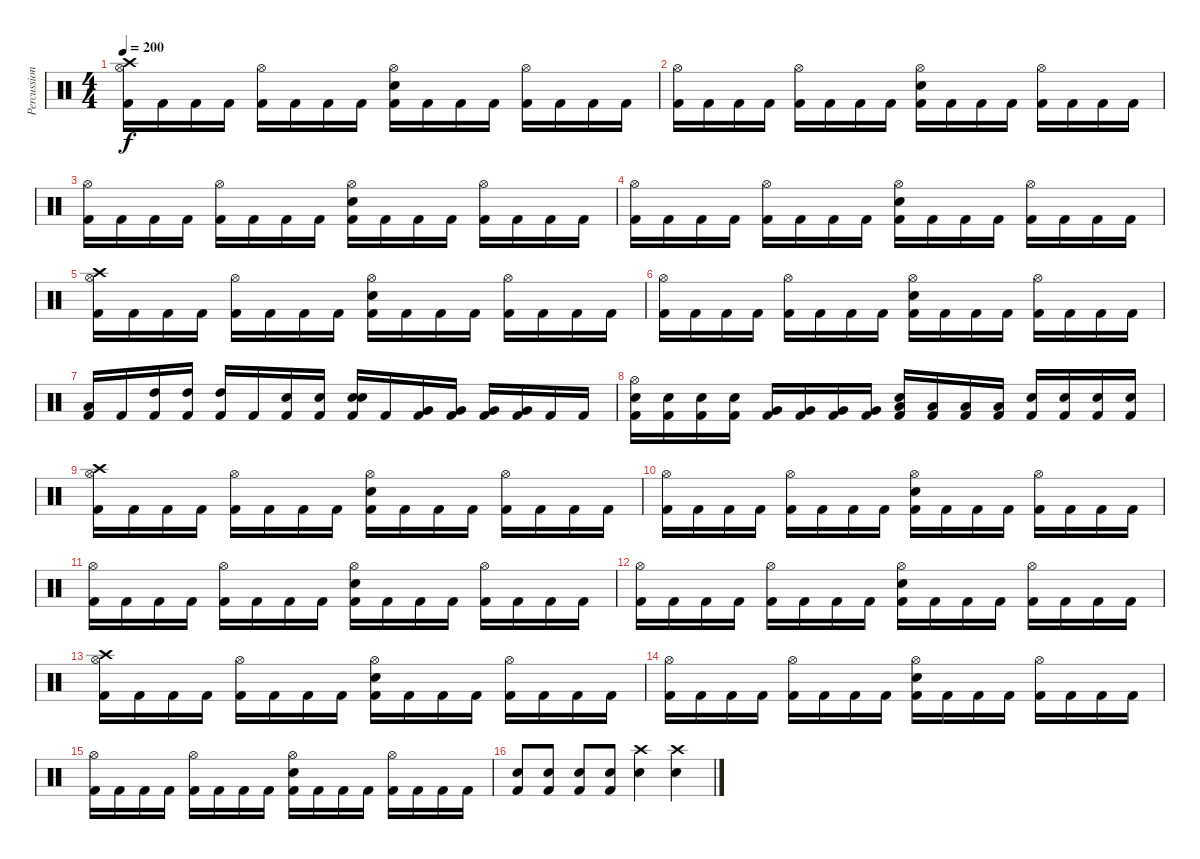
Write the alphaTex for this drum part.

\track ("Percussions" "Percussion") {instrument percussion}
\staff {score}
\articulation defaults
\ts (4 4)
\tempo 200
\clef neutral
\ks c
("Crash high (hit)" "Hi-Hat (open)" "Kick (hit) 2").16{dy f} "Kick (hit) 2".16 "Kick (hit) 2".16 "Kick (hit) 2".16 ("Hi-Hat (open)" "Kick (hit) 2").16 "Kick (hit) 2".16 "Kick (hit) 2".16 "Kick (hit) 2".16 ("Hi-Hat (open)" "Electric Snare (hit)" "Kick (hit) 2").16 "Kick (hit) 2".16 "Kick (hit) 2".16 "Kick (hit) 2".16 ("Hi-Hat (open)" "Kick (hit) 2").16 "Kick (hit) 2".16 "Kick (hit) 2".16 "Kick (hit) 2".16 |
("Hi-Hat (open)" "Kick (hit) 2").16 "Kick (hit) 2".16 "Kick (hit) 2".16 "Kick (hit) 2".16 ("Hi-Hat (open)" "Kick (hit) 2").16 "Kick (hit) 2".16 "Kick (hit) 2".16 "Kick (hit) 2".16 ("Hi-Hat (open)" "Electric Snare (hit)" "Kick (hit) 2").16 "Kick (hit) 2".16 "Kick (hit) 2".16 "Kick (hit) 2".16 ("Hi-Hat (open)" "Kick (hit) 2").16 "Kick (hit) 2".16 "Kick (hit) 2".16 "Kick (hit) 2".16 |
("Hi-Hat (open)" "Kick (hit) 2").16 "Kick (hit) 2".16 "Kick (hit) 2".16 "Kick (hit) 2".16 ("Hi-Hat (open)" "Kick (hit) 2").16 "Kick (hit) 2".16 "Kick (hit) 2".16 "Kick (hit) 2".16 ("Hi-Hat (open)" "Electric Snare (hit)" "Kick (hit) 2").16 "Kick (hit) 2".16 "Kick (hit) 2".16 "Kick (hit) 2".16 ("Hi-Hat (open)" "Kick (hit) 2").16 "Kick (hit) 2".16 "Kick (hit) 2".16 "Kick (hit) 2".16 |
("Hi-Hat (open)" "Kick (hit) 2").16 "Kick (hit) 2".16 "Kick (hit) 2".16 "Kick (hit) 2".16 ("Hi-Hat (open)" "Kick (hit) 2").16 "Kick (hit) 2".16 "Kick (hit) 2".16 "Kick (hit) 2".16 ("Hi-Hat (open)" "Electric Snare (hit)" "Kick (hit) 2").16 "Kick (hit) 2".16 "Kick (hit) 2".16 "Kick (hit) 2".16 ("Hi-Hat (open)" "Kick (hit) 2").16 "Kick (hit) 2".16 "Kick (hit) 2".16 "Kick (hit) 2".16 |
("Crash high (hit)" "Hi-Hat (open)" "Kick (hit) 2").16 "Kick (hit) 2".16 "Kick (hit) 2".16 "Kick (hit) 2".16 ("Hi-Hat (open)" "Kick (hit) 2").16 "Kick (hit) 2".16 "Kick (hit) 2".16 "Kick (hit) 2".16 ("Hi-Hat (open)" "Electric Snare (hit)" "Kick (hit) 2").16 "Kick (hit) 2".16 "Kick (hit) 2".16 "Kick (hit) 2".16 ("Hi-Hat (open)" "Kick (hit) 2").16 "Kick (hit) 2".16 "Kick (hit) 2".16 "Kick (hit) 2".16 |
("Hi-Hat (open)" "Kick (hit) 2").16 "Kick (hit) 2".16 "Kick (hit) 2".16 "Kick (hit) 2".16 ("Hi-Hat (open)" "Kick (hit) 2").16 "Kick (hit) 2".16 "Kick (hit) 2".16 "Kick (hit) 2".16 ("Hi-Hat (open)" "Electric Snare (hit)" "Kick (hit) 2").16 "Kick (hit) 2".16 "Kick (hit) 2".16 "Kick (hit) 2".16 ("Hi-Hat (open)" "Kick (hit) 2").16 "Kick (hit) 2".16 "Kick (hit) 2".16 "Kick (hit) 2".16 |
("Low Tom (hit)" "Kick (hit) 2").16 "Kick (hit) 2".16 ("High Tom (hit)" "Kick (hit) 2").16 ("High Tom (hit)" "Kick (hit) 2").16 ("High Tom (hit)" "Kick (hit) 2").16 "Kick (hit) 2".16 ("Electric Snare (hit)" "Kick (hit) 2").16 ("Electric Snare (hit)" "Kick (hit) 2").16 ("Electric Snare (hit)" "Electric Snare (hit)" "Kick (hit) 2").16 "Kick (hit) 2".16 ("Very Low Tom (hit)" "Kick (hit) 2").16 ("Very Low Tom (hit)" "Kick (hit) 2").16 ("Very Low Tom (hit)" "Kick (hit) 2").16 ("Very Low Tom (hit)" "Kick (hit) 2").16 "Kick (hit) 2".16 "Kick (hit) 2".16 |
("Electric Snare (hit)" "Hi-Hat (open)" "Kick (hit) 2").16 ("Electric Snare (hit)" "Kick (hit) 2").16 ("Electric Snare (hit)" "Kick (hit) 2").16 ("Electric Snare (hit)" "Kick (hit) 2").16 ("Very Low Tom (hit)" "Kick (hit) 2").16 ("Very Low Tom (hit)" "Kick (hit) 2").16 ("Very Low Tom (hit)" "Kick (hit) 2").16 ("Very Low Tom (hit)" "Kick (hit) 2").16 ("Low Floor Tom (hit)" "Electric Snare (hit)" "Kick (hit) 2").16 ("Low Floor Tom (hit)" "Kick (hit) 2").16 ("Low Floor Tom (hit)" "Kick (hit) 2").16 ("Low Floor Tom (hit)" "Kick (hit) 2").16 ("Electric Snare (hit)" "Kick (hit) 2").16 ("Electric Snare (hit)" "Kick (hit) 2").16 ("Electric Snare (hit)" "Kick (hit) 2").16 ("Electric Snare (hit)" "Kick (hit) 2").16 |
("Crash high (hit)" "Hi-Hat (open)" "Kick (hit) 2").16 "Kick (hit) 2".16 "Kick (hit) 2".16 "Kick (hit) 2".16 ("Hi-Hat (open)" "Kick (hit) 2").16 "Kick (hit) 2".16 "Kick (hit) 2".16 "Kick (hit) 2".16 ("Hi-Hat (open)" "Electric Snare (hit)" "Kick (hit) 2").16 "Kick (hit) 2".16 "Kick (hit) 2".16 "Kick (hit) 2".16 ("Hi-Hat (open)" "Kick (hit) 2").16 "Kick (hit) 2".16 "Kick (hit) 2".16 "Kick (hit) 2".16 |
("Hi-Hat (open)" "Kick (hit) 2").16 "Kick (hit) 2".16 "Kick (hit) 2".16 "Kick (hit) 2".16 ("Hi-Hat (open)" "Kick (hit) 2").16 "Kick (hit) 2".16 "Kick (hit) 2".16 "Kick (hit) 2".16 ("Hi-Hat (open)" "Electric Snare (hit)" "Kick (hit) 2").16 "Kick (hit) 2".16 "Kick (hit) 2".16 "Kick (hit) 2".16 ("Hi-Hat (open)" "Kick (hit) 2").16 "Kick (hit) 2".16 "Kick (hit) 2".16 "Kick (hit) 2".16 |
("Hi-Hat (open)" "Kick (hit) 2").16 "Kick (hit) 2".16 "Kick (hit) 2".16 "Kick (hit) 2".16 ("Hi-Hat (open)" "Kick (hit) 2").16 "Kick (hit) 2".16 "Kick (hit) 2".16 "Kick (hit) 2".16 ("Hi-Hat (open)" "Electric Snare (hit)" "Kick (hit) 2").16 "Kick (hit) 2".16 "Kick (hit) 2".16 "Kick (hit) 2".16 ("Hi-Hat (open)" "Kick (hit) 2").16 "Kick (hit) 2".16 "Kick (hit) 2".16 "Kick (hit) 2".16 |
("Hi-Hat (open)" "Kick (hit) 2").16 "Kick (hit) 2".16 "Kick (hit) 2".16 "Kick (hit) 2".16 ("Hi-Hat (open)" "Kick (hit) 2").16 "Kick (hit) 2".16 "Kick (hit) 2".16 "Kick (hit) 2".16 ("Hi-Hat (open)" "Electric Snare (hit)" "Kick (hit) 2").16 "Kick (hit) 2".16 "Kick (hit) 2".16 "Kick (hit) 2".16 ("Hi-Hat (open)" "Kick (hit) 2").16 "Kick (hit) 2".16 "Kick (hit) 2".16 "Kick (hit) 2".16 |
("Crash high (hit)" "Hi-Hat (open)" "Kick (hit) 2").16 "Kick (hit) 2".16 "Kick (hit) 2".16 "Kick (hit) 2".16 ("Hi-Hat (open)" "Kick (hit) 2").16 "Kick (hit) 2".16 "Kick (hit) 2".16 "Kick (hit) 2".16 ("Hi-Hat (open)" "Electric Snare (hit)" "Kick (hit) 2").16 "Kick (hit) 2".16 "Kick (hit) 2".16 "Kick (hit) 2".16 ("Hi-Hat (open)" "Kick (hit) 2").16 "Kick (hit) 2".16 "Kick (hit) 2".16 "Kick (hit) 2".16 |
("Hi-Hat (open)" "Kick (hit) 2").16 "Kick (hit) 2".16 "Kick (hit) 2".16 "Kick (hit) 2".16 ("Hi-Hat (open)" "Kick (hit) 2").16 "Kick (hit) 2".16 "Kick (hit) 2".16 "Kick (hit) 2".16 ("Hi-Hat (open)" "Electric Snare (hit)" "Kick (hit) 2").16 "Kick (hit) 2".16 "Kick (hit) 2".16 "Kick (hit) 2".16 ("Hi-Hat (open)" "Kick (hit) 2").16 "Kick (hit) 2".16 "Kick (hit) 2".16 "Kick (hit) 2".16 |
("Hi-Hat (open)" "Kick (hit) 2").16 "Kick (hit) 2".16 "Kick (hit) 2".16 "Kick (hit) 2".16 ("Hi-Hat (open)" "Kick (hit) 2").16 "Kick (hit) 2".16 "Kick (hit) 2".16 "Kick (hit) 2".16 ("Hi-Hat (open)" "Electric Snare (hit)" "Kick (hit) 2").16 "Kick (hit) 2".16 "Kick (hit) 2".16 "Kick (hit) 2".16 ("Hi-Hat (open)" "Kick (hit) 2").16 "Kick (hit) 2".16 "Kick (hit) 2".16 "Kick (hit) 2".16 |
("Electric Snare (hit)" "Kick (hit) 2").8 ("Electric Snare (hit)" "Kick (hit) 2").8 ("Electric Snare (hit)" "Kick (hit) 2").8 ("Electric Snare (hit)" "Kick (hit) 2").8 ("Crash high (hit)" "Electric Snare (hit)").4 ("Crash high (hit)" "Electric Snare (hit)").4
